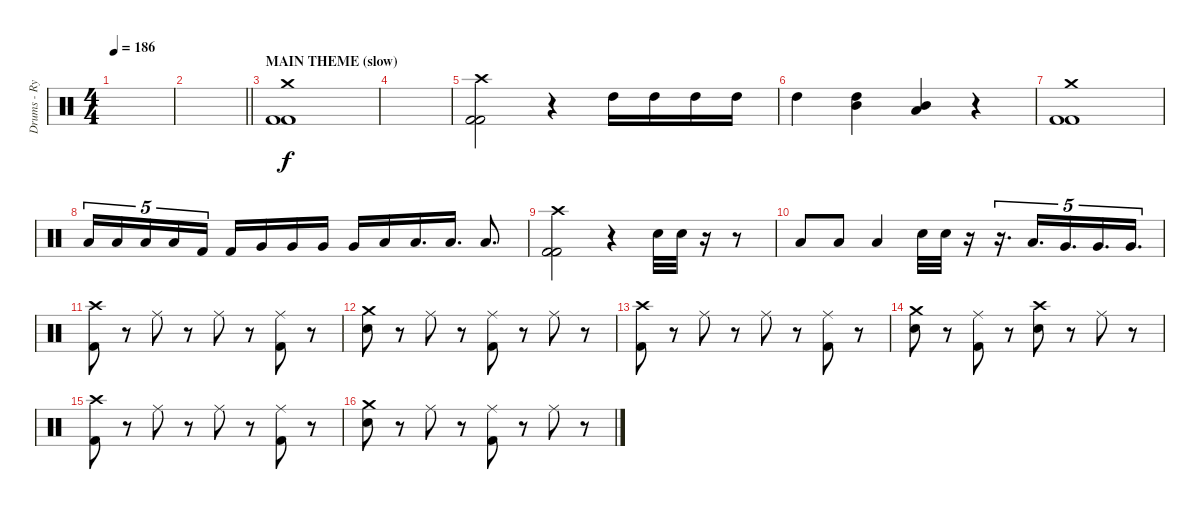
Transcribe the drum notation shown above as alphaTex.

\track ("Drums - Ryan Bates" "Drums - Ry") {instrument percussion}
\staff {score}
\articulation defaults
\ts (4 4)
\tempo 186
\clef neutral
\ks c
|
\barLineRight lightlight
|
\section ("" "MAIN THEME (slow)")
("Crash medium (hit)" "Kick (hit) 2" "Kick (hit) 2").1 |
|
("Crash high (hit)" "Kick (hit) 2" "Kick (hit) 2").2 r.4 "High Tom (hit)".16 "High Tom (hit)".16 "High Tom (hit)".16 "High Tom (hit)".16 |
"High Tom (hit)".4 ("High Tom (hit)" "Mid Tom (hit)").4 ("Mid Tom (hit)" "Low Tom (hit)").4 r.4 |
("Crash medium (hit)" "Kick (hit) 2" "Kick (hit) 2").1 |
"Low Tom (hit)".16{tu (5 4)} "Low Tom (hit)".16{tu (5 4)} "Low Tom (hit)".16{tu (5 4)} "Low Tom (hit)".16{tu (5 4)} "Kick (hit) 2".16{tu (5 4)} "Kick (hit) 2".16 "Very Low Tom (hit)".16 "Very Low Tom (hit)".16 "Very Low Tom (hit)".16 "Very Low Tom (hit)".16 "Low Floor Tom (hit)".16 "Low Floor Tom (hit)".16{d} "Low Floor Tom (hit)".16{d} "Low Floor Tom (hit)".8{d} |
("Crash high (hit)" "Kick (hit) 2" "Kick (hit) 2").2 r.4 "Snare (hit) 2".32 "Snare (hit) 2".32 r.16 r.8 |
"Low Tom (hit)".8 "Low Tom (hit)".8 "Low Tom (hit)".4 "Snare (hit) 2".32 "Snare (hit) 2".32 r.16 r.16{d tu (5 4)} "Low Tom (hit)".16{d tu (5 4)} "Very Low Tom (hit)".16{d tu (5 4)} "Very Low Tom (hit)".16{d tu (5 4)} "Very Low Tom (hit)".16{d tu (5 4)} |
("Crash high (hit)" "Kick (hit) 2").8 r.8 "Ride (middle)".8 r.8 "Ride (middle)".8 r.8 ("Ride (middle)" "Kick (hit) 2").8 r.8 |
("Crash medium (hit)" "Snare (hit) 2").8 r.8 "Ride (middle)".8 r.8 ("Ride (middle)" "Kick (hit) 2").8 r.8 "Ride (middle)".8 r.8 |
("Crash high (hit)" "Kick (hit) 2").8 r.8 "Ride (middle)".8 r.8 "Ride (middle)".8 r.8 ("Ride (middle)" "Kick (hit) 2").8 r.8 |
("Crash medium (hit)" "Snare (hit) 2").8 r.8 ("Ride (middle)" "Kick (hit) 2").8 r.8 ("Crash high (hit)" "Snare (hit) 2").8 r.8 "Ride (middle)".8 r.8 |
("Crash high (hit)" "Kick (hit) 2").8 r.8 "Ride (middle)".8 r.8 "Ride (middle)".8 r.8 ("Ride (middle)" "Kick (hit) 2").8 r.8 |
("Crash medium (hit)" "Snare (hit) 2").8 r.8 "Ride (middle)".8 r.8 ("Ride (middle)" "Kick (hit) 2").8 r.8 "Ride (middle)".8 r.8
